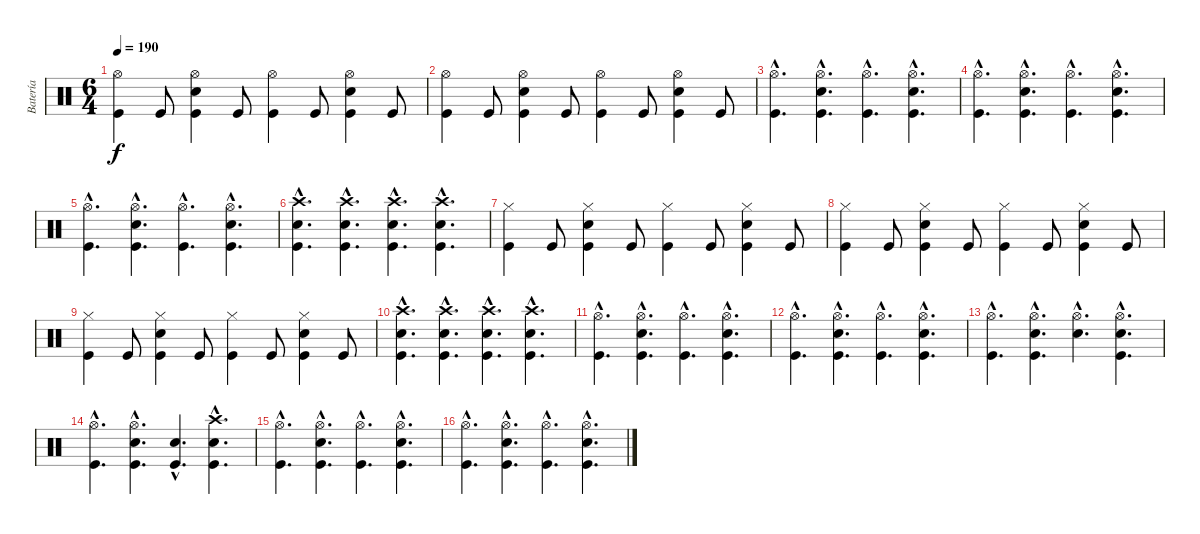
\track ("Batería" "Batería") {instrument percussion}
\staff {score}
\articulation defaults
\ts (6 4)
\tempo 190
\clef neutral
\ks c
("Hi-Hat (open)" "Kick (hit)").4{dy f} "Kick (hit)".8 ("Kick (hit)" "Hi-Hat (open)" "Snare (hit) 2").4 "Kick (hit)".8 ("Hi-Hat (open)" "Kick (hit)").4 "Kick (hit)".8 ("Kick (hit)" "Hi-Hat (open)" "Snare (hit) 2").4 "Kick (hit)".8 |
("Hi-Hat (open)" "Kick (hit)").4 "Kick (hit)".8 ("Kick (hit)" "Hi-Hat (open)" "Snare (hit) 2").4 "Kick (hit)".8 ("Hi-Hat (open)" "Kick (hit)").4 "Kick (hit)".8 ("Kick (hit)" "Hi-Hat (open)" "Snare (hit) 2").4 "Kick (hit)".8 |
("Hi-Hat (open)"{hac} "Kick (hit)"{hac}).4{d} ("Kick (hit)"{hac} "Hi-Hat (open)"{hac} "Snare (hit) 2"{hac}).4{d} ("Hi-Hat (open)"{hac} "Kick (hit)"{hac}).4{d} ("Kick (hit)"{hac} "Hi-Hat (open)"{hac} "Snare (hit) 2"{hac}).4{d} |
("Hi-Hat (open)"{hac} "Kick (hit)"{hac}).4{d} ("Kick (hit)"{hac} "Hi-Hat (open)"{hac} "Snare (hit) 2"{hac}).4{d} ("Hi-Hat (open)"{hac} "Kick (hit)"{hac}).4{d} ("Kick (hit)"{hac} "Hi-Hat (open)"{hac} "Snare (hit) 2"{hac}).4{d} |
("Hi-Hat (open)"{hac} "Kick (hit)"{hac}).4{d} ("Kick (hit)"{hac} "Hi-Hat (open)"{hac} "Snare (hit) 2"{hac}).4{d} ("Hi-Hat (open)"{hac} "Kick (hit)"{hac}).4{d} ("Kick (hit)"{hac} "Hi-Hat (open)"{hac} "Snare (hit) 2"{hac}).4{d} |
("Crash high (hit)"{hac} "Kick (hit)"{hac} "Snare (hit) 2"{hac}).4{d} ("Crash high (hit)"{hac} "Kick (hit)"{hac} "Snare (hit) 2"{hac}).4{d} ("Crash high (hit)"{hac} "Kick (hit)"{hac} "Snare (hit) 2"{hac}).4{d} ("Crash high (hit)"{hac} "Kick (hit)"{hac} "Snare (hit) 2"{hac}).4{d} |
("Hi-Hat (closed)" "Kick (hit)").4 "Kick (hit)".8 ("Kick (hit)" "Hi-Hat (closed)" "Snare (hit) 2").4 "Kick (hit)".8 ("Hi-Hat (closed)" "Kick (hit)").4 "Kick (hit)".8 ("Kick (hit)" "Hi-Hat (closed)" "Snare (hit) 2").4 "Kick (hit)".8 |
("Hi-Hat (closed)" "Kick (hit)").4 "Kick (hit)".8 ("Kick (hit)" "Hi-Hat (closed)" "Snare (hit) 2").4 "Kick (hit)".8 ("Hi-Hat (closed)" "Kick (hit)").4 "Kick (hit)".8 ("Kick (hit)" "Hi-Hat (closed)" "Snare (hit) 2").4 "Kick (hit)".8 |
("Hi-Hat (closed)" "Kick (hit)").4 "Kick (hit)".8 ("Kick (hit)" "Hi-Hat (closed)" "Snare (hit) 2").4 "Kick (hit)".8 ("Hi-Hat (closed)" "Kick (hit)").4 "Kick (hit)".8 ("Kick (hit)" "Hi-Hat (closed)" "Snare (hit) 2").4 "Kick (hit)".8 |
("Crash high (hit)"{hac} "Kick (hit)"{hac} "Snare (hit) 2"{hac}).4{d} ("Crash high (hit)"{hac} "Kick (hit)"{hac} "Snare (hit) 2"{hac}).4{d} ("Crash high (hit)"{hac} "Kick (hit)"{hac} "Snare (hit) 2"{hac}).4{d} ("Crash high (hit)"{hac} "Kick (hit)"{hac} "Snare (hit) 2"{hac}).4{d} |
("Hi-Hat (open)"{hac} "Kick (hit)"{hac}).4{d} ("Kick (hit)"{hac} "Hi-Hat (open)"{hac} "Snare (hit) 2"{hac}).4{d} ("Hi-Hat (open)"{hac} "Kick (hit)"{hac}).4{d} ("Kick (hit)"{hac} "Hi-Hat (open)"{hac} "Snare (hit) 2"{hac}).4{d} |
("Hi-Hat (open)"{hac} "Kick (hit)"{hac}).4{d} ("Kick (hit)"{hac} "Hi-Hat (open)"{hac} "Snare (hit) 2"{hac}).4{d} ("Hi-Hat (open)"{hac} "Kick (hit)"{hac}).4{d} ("Kick (hit)"{hac} "Hi-Hat (open)"{hac} "Snare (hit) 2"{hac}).4{d} |
("Hi-Hat (open)"{hac} "Kick (hit)"{hac}).4{d} ("Kick (hit)"{hac} "Hi-Hat (open)"{hac} "Snare (hit) 2"{hac}).4{d} ("Hi-Hat (open)"{hac} "Metronome (bell)"{hac}).4{d} ("Kick (hit)"{hac} "Hi-Hat (open)"{hac} "Snare (hit) 2"{hac}).4{d} |
("Hi-Hat (open)"{hac} "Kick (hit)"{hac}).4{d} ("Kick (hit)"{hac} "Hi-Hat (open)"{hac} "Snare (hit) 2"{hac}).4{d} ("Snare (hit) 2"{hac} "Kick (hit)"{hac}).4{d} ("Crash high (hit)"{hac} "Snare (hit) 2"{hac} "Kick (hit)"{hac}).4{d} |
("Hi-Hat (open)"{hac} "Kick (hit)"{hac}).4{d} ("Kick (hit)"{hac} "Hi-Hat (open)"{hac} "Snare (hit) 2"{hac}).4{d} ("Hi-Hat (open)"{hac} "Kick (hit)"{hac}).4{d} ("Kick (hit)"{hac} "Hi-Hat (open)"{hac} "Snare (hit) 2"{hac}).4{d} |
("Hi-Hat (open)"{hac} "Kick (hit)"{hac}).4{d} ("Kick (hit)"{hac} "Hi-Hat (open)"{hac} "Snare (hit) 2"{hac}).4{d} ("Hi-Hat (open)"{hac} "Kick (hit)"{hac}).4{d} ("Kick (hit)"{hac} "Hi-Hat (open)"{hac} "Snare (hit) 2"{hac}).4{d}
